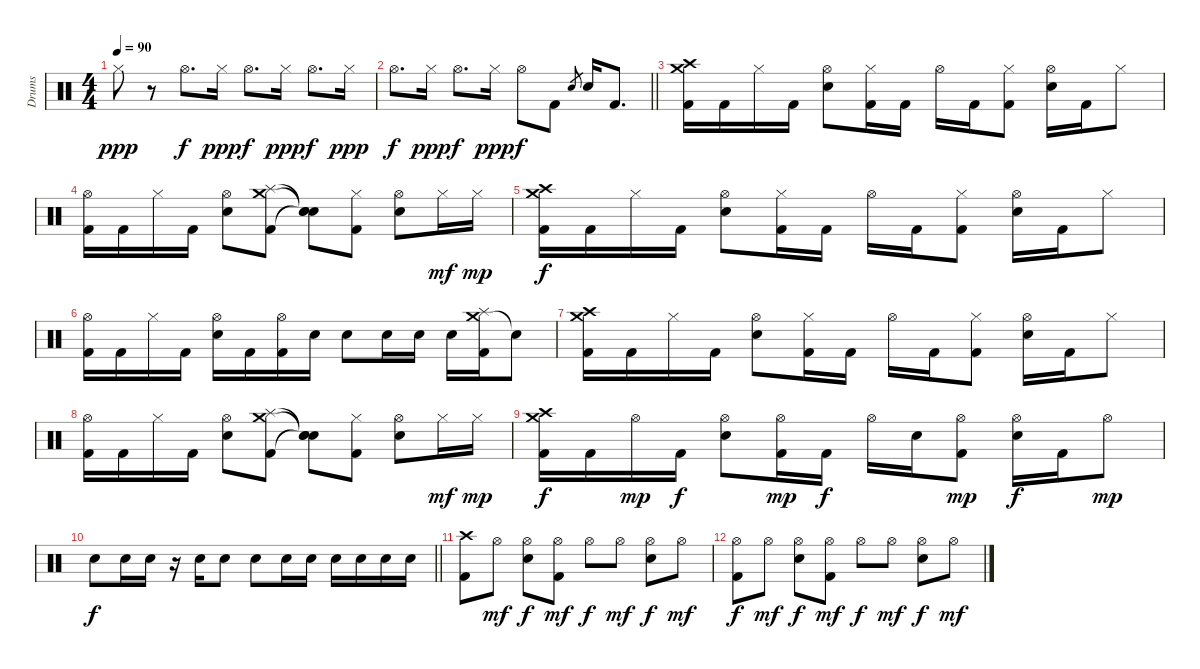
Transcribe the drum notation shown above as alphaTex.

\track ("Drums" "Drums") {instrument percussion}
\staff {score}
\articulation defaults
\ts (4 4)
\tempo 90
\clef neutral
\ks c "Hi-Hat (closed)".8{dy ppp}
r.8 "Hi-Hat (open)".8{d dy f} "Hi-Hat (closed)".16{dy ppp} "Hi-Hat (open)".8{d dy f} "Hi-Hat (closed)".16{dy ppp} "Hi-Hat (open)".8{d dy f} "Hi-Hat (closed)".16{dy ppp} |
\barLineRight lightlight "Hi-Hat (open)".8{d dy f} "Hi-Hat (closed)".16{dy ppp} "Hi-Hat (open)".8{d dy f} "Hi-Hat (closed)".16{dy ppp} "Hi-Hat (open)".8{dy f} "Kick (hit) 2".8 "Electric Snare (hit)".8{gr} "Electric Snare (hit)".16 "Kick (hit) 2".8{d}
|
("Crash high (hit)" "Crash medium (hit)" "Kick (hit) 2").16 "Kick (hit) 2".16 "Hi-Hat (closed)".16 "Kick (hit) 2".16 ("Hi-Hat (open)" "Electric Snare (hit)").8 ("Hi-Hat (closed)" "Kick (hit) 2").16 "Kick (hit) 2".16 "Hi-Hat (open)".16 "Kick (hit) 2".16 ("Hi-Hat (closed)" "Kick (hit) 2").8 ("Hi-Hat (open)" "Electric Snare (hit)").16 "Kick (hit) 2".16 "Hi-Hat (closed)".8 |
("Hi-Hat (open)" "Kick (hit) 2").16 "Kick (hit) 2".16 "Hi-Hat (closed)".16 "Kick (hit) 2".16 ("Hi-Hat (open)" "Electric Snare (hit)").8 ("Crash medium (hit)" "Splash (hit)" "Kick (hit) 2").8 ("Snare (hit)"{t} "Snare (hit)"{t} "Snare (hit)"{t}).8 ("Hi-Hat (closed)" "Kick (hit) 2").8 ("Hi-Hat (open)" "Electric Snare (hit)").8 "Hi-Hat (closed)".16{dy mf} "Hi-Hat (closed)".16{dy mp} |
("Crash high (hit)" "Crash medium (hit)" "Kick (hit) 2").16{dy f} "Kick (hit) 2".16 "Hi-Hat (closed)".16 "Kick (hit) 2".16 ("Hi-Hat (open)" "Electric Snare (hit)").8 ("Hi-Hat (closed)" "Kick (hit) 2").16 "Kick (hit) 2".16 "Hi-Hat (open)".16 "Kick (hit) 2".16 ("Hi-Hat (closed)" "Kick (hit) 2").8 ("Hi-Hat (open)" "Electric Snare (hit)").16 "Kick (hit) 2".16 "Hi-Hat (closed)".8 |
("Hi-Hat (open)" "Kick (hit) 2").16 "Kick (hit) 2".16 "Hi-Hat (closed)".16 "Kick (hit) 2".16 ("Hi-Hat (open)" "Electric Snare (hit)").16 "Kick (hit) 2".16 ("Hi-Hat (open)" "Kick (hit) 2").16 "Electric Snare (hit)".16 "Electric Snare (hit)".8 "Electric Snare (hit)".16 "Electric Snare (hit)".16 "Electric Snare (hit)".16 ("Crash medium (hit)" "Splash (hit)" "Kick (hit) 2").16 "Snare (hit)"{t}.8 |
("Crash high (hit)" "Crash medium (hit)" "Kick (hit) 2").16 "Kick (hit) 2".16 "Hi-Hat (closed)".16 "Kick (hit) 2".16 ("Hi-Hat (open)" "Electric Snare (hit)").8 ("Hi-Hat (closed)" "Kick (hit) 2").16 "Kick (hit) 2".16 "Hi-Hat (open)".16 "Kick (hit) 2".16 ("Hi-Hat (closed)" "Kick (hit) 2").8 ("Hi-Hat (open)" "Electric Snare (hit)").16 "Kick (hit) 2".16 "Hi-Hat (closed)".8 |
("Hi-Hat (open)" "Kick (hit) 2").16 "Kick (hit) 2".16 "Hi-Hat (closed)".16 "Kick (hit) 2".16 ("Hi-Hat (open)" "Electric Snare (hit)").8 ("Crash medium (hit)" "Splash (hit)" "Kick (hit) 2").8 ("Snare (hit)"{t} "Snare (hit)"{t} "Snare (hit)"{t}).8 ("Hi-Hat (closed)" "Kick (hit) 2").8 ("Hi-Hat (open)" "Electric Snare (hit)").8 "Hi-Hat (closed)".16{dy mf} "Hi-Hat (closed)".16{dy mp} |
("Crash high (hit)" "Crash medium (hit)" "Kick (hit) 2").16{dy f} "Kick (hit) 2".16 "Hi-Hat (open)".16{dy mp} "Kick (hit) 2".16{dy f} ("Hi-Hat (open)" "Electric Snare (hit)").8 ("Hi-Hat (open)" "Kick (hit) 2").16{dy mp} "Kick (hit) 2".16{dy f} "Hi-Hat (open)".16 "Electric Snare (hit)".16 ("Hi-Hat (open)" "Kick (hit) 2").8{dy mp} ("Hi-Hat (open)" "Electric Snare (hit)").16{dy f} "Kick (hit) 2".16 "Hi-Hat (open)".8{dy mp} |
\barLineRight lightlight "Electric Snare (hit)".8{dy f} "Electric Snare (hit)".16 "Electric Snare (hit)".16
r.16 "Electric Snare (hit)".16 "Electric Snare (hit)".8 "Electric Snare (hit)".8 "Electric Snare (hit)".16 "Electric Snare (hit)".16 "Electric Snare (hit)".16 "Electric Snare (hit)".16 "Electric Snare (hit)".16 "Electric Snare (hit)".16 |
("Crash high (hit)" "Kick (hit) 2").8 "Hi-Hat (open)".8{dy mf} ("Hi-Hat (open)" "Electric Snare (hit)").8{dy f} ("Hi-Hat (open)" "Kick (hit) 2").8{dy mf} "Hi-Hat (open)".8{dy f} "Hi-Hat (open)".8{dy mf} ("Hi-Hat (open)" "Electric Snare (hit)").8{dy f} "Hi-Hat (open)".8{dy mf} |
("Hi-Hat (open)" "Kick (hit) 2").8{dy f} "Hi-Hat (open)".8{dy mf} ("Hi-Hat (open)" "Electric Snare (hit)").8{dy f} ("Hi-Hat (open)" "Kick (hit) 2").8{dy mf} "Hi-Hat (open)".8{dy f} "Hi-Hat (open)".8{dy mf} ("Hi-Hat (open)" "Electric Snare (hit)").8{dy f} "Hi-Hat (open)".8{dy mf}
